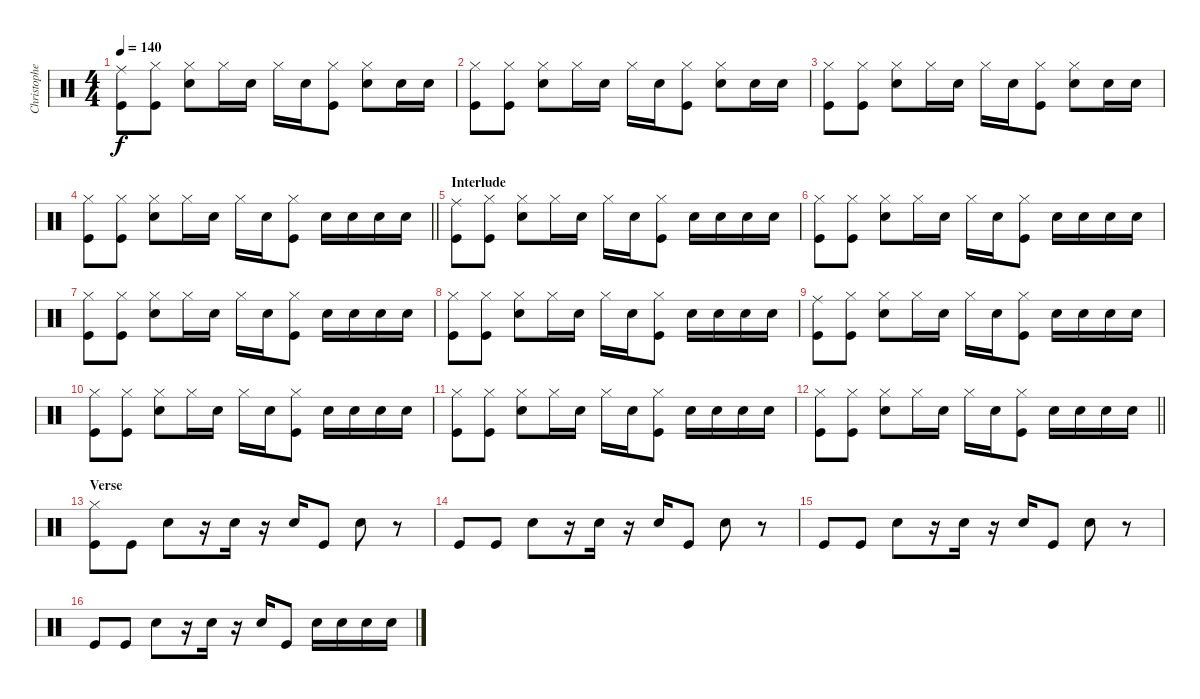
\track ("Christopher - Drums" "Christophe") {instrument percussion}
\staff {score}
\articulation defaults
\ts (4 4)
\tempo 140
\clef neutral
\ks c
("Ride (middle)" "Kick (hit)").8{dy f} ("Hi-Hat (closed)" "Kick (hit)").8 ("Hi-Hat (closed)" "Snare (hit) 2").8 "Hi-Hat (closed)".16 "Snare (hit) 2".16 "Hi-Hat (closed)".16 "Snare (hit) 2".16 ("Hi-Hat (closed)" "Kick (hit)").8 ("Hi-Hat (closed)" "Snare (hit) 2").8 "Snare (hit) 2".16 "Snare (hit) 2".16 |
("Hi-Hat (closed)" "Kick (hit)").8 ("Hi-Hat (closed)" "Kick (hit)").8 ("Hi-Hat (closed)" "Snare (hit) 2").8 "Hi-Hat (closed)".16 "Snare (hit) 2".16 "Hi-Hat (closed)".16 "Snare (hit) 2".16 ("Hi-Hat (closed)" "Kick (hit)").8 ("Hi-Hat (closed)" "Snare (hit) 2").8 "Snare (hit) 2".16 "Snare (hit) 2".16 |
("Hi-Hat (closed)" "Kick (hit)").8 ("Hi-Hat (closed)" "Kick (hit)").8 ("Hi-Hat (closed)" "Snare (hit) 2").8 "Hi-Hat (closed)".16 "Snare (hit) 2".16 "Hi-Hat (closed)".16 "Snare (hit) 2".16 ("Hi-Hat (closed)" "Kick (hit)").8 ("Hi-Hat (closed)" "Snare (hit) 2").8 "Snare (hit) 2".16 "Snare (hit) 2".16 |
\barLineRight lightlight
("Hi-Hat (closed)" "Kick (hit)").8 ("Hi-Hat (closed)" "Kick (hit)").8 ("Hi-Hat (closed)" "Snare (hit) 2").8 "Hi-Hat (closed)".16 "Snare (hit) 2".16 "Hi-Hat (closed)".16 "Snare (hit) 2".16 ("Hi-Hat (closed)" "Kick (hit)").8 "Snare (hit) 2".16 "Snare (hit) 2".16 "Snare (hit) 2".16 "Snare (hit) 2".16 |
\section ("" "Interlude")
("Ride (middle)" "Kick (hit)").8 ("Hi-Hat (closed)" "Kick (hit)").8 ("Hi-Hat (closed)" "Snare (hit) 2").8 "Hi-Hat (closed)".16 "Snare (hit) 2".16 "Hi-Hat (closed)".16 "Snare (hit) 2".16 ("Hi-Hat (closed)" "Kick (hit)").8 "Snare (hit) 2".16 "Snare (hit) 2".16 "Snare (hit) 2".16 "Snare (hit) 2".16 |
("Hi-Hat (closed)" "Kick (hit)").8 ("Hi-Hat (closed)" "Kick (hit)").8 ("Hi-Hat (closed)" "Snare (hit) 2").8 "Hi-Hat (closed)".16 "Snare (hit) 2".16 "Hi-Hat (closed)".16 "Snare (hit) 2".16 ("Hi-Hat (closed)" "Kick (hit)").8 "Snare (hit) 2".16 "Snare (hit) 2".16 "Snare (hit) 2".16 "Snare (hit) 2".16 |
("Hi-Hat (closed)" "Kick (hit)").8 ("Hi-Hat (closed)" "Kick (hit)").8 ("Hi-Hat (closed)" "Snare (hit) 2").8 "Hi-Hat (closed)".16 "Snare (hit) 2".16 "Hi-Hat (closed)".16 "Snare (hit) 2".16 ("Hi-Hat (closed)" "Kick (hit)").8 "Snare (hit) 2".16 "Snare (hit) 2".16 "Snare (hit) 2".16 "Snare (hit) 2".16 |
("Hi-Hat (closed)" "Kick (hit)").8 ("Hi-Hat (closed)" "Kick (hit)").8 ("Hi-Hat (closed)" "Snare (hit) 2").8 "Hi-Hat (closed)".16 "Snare (hit) 2".16 "Hi-Hat (closed)".16 "Snare (hit) 2".16 ("Hi-Hat (closed)" "Kick (hit)").8 "Snare (hit) 2".16 "Snare (hit) 2".16 "Snare (hit) 2".16 "Snare (hit) 2".16 |
("Ride (middle)" "Kick (hit)").8 ("Hi-Hat (closed)" "Kick (hit)").8 ("Hi-Hat (closed)" "Snare (hit) 2").8 "Hi-Hat (closed)".16 "Snare (hit) 2".16 "Hi-Hat (closed)".16 "Snare (hit) 2".16 ("Hi-Hat (closed)" "Kick (hit)").8 "Snare (hit) 2".16 "Snare (hit) 2".16 "Snare (hit) 2".16 "Snare (hit) 2".16 |
("Hi-Hat (closed)" "Kick (hit)").8 ("Hi-Hat (closed)" "Kick (hit)").8 ("Hi-Hat (closed)" "Snare (hit) 2").8 "Hi-Hat (closed)".16 "Snare (hit) 2".16 "Hi-Hat (closed)".16 "Snare (hit) 2".16 ("Hi-Hat (closed)" "Kick (hit)").8 "Snare (hit) 2".16 "Snare (hit) 2".16 "Snare (hit) 2".16 "Snare (hit) 2".16 |
("Hi-Hat (closed)" "Kick (hit)").8 ("Hi-Hat (closed)" "Kick (hit)").8 ("Hi-Hat (closed)" "Snare (hit) 2").8 "Hi-Hat (closed)".16 "Snare (hit) 2".16 "Hi-Hat (closed)".16 "Snare (hit) 2".16 ("Hi-Hat (closed)" "Kick (hit)").8 "Snare (hit) 2".16 "Snare (hit) 2".16 "Snare (hit) 2".16 "Snare (hit) 2".16 |
\barLineRight lightlight
("Hi-Hat (closed)" "Kick (hit)").8 ("Hi-Hat (closed)" "Kick (hit)").8 ("Hi-Hat (closed)" "Snare (hit) 2").8 "Hi-Hat (closed)".16 "Snare (hit) 2".16 "Hi-Hat (closed)".16 "Snare (hit) 2".16 ("Hi-Hat (closed)" "Kick (hit)").8 "Snare (hit) 2".16 "Snare (hit) 2".16 "Snare (hit) 2".16 "Snare (hit) 2".16 |
\section ("" "Verse")
("Hi-Hat (closed)" "Kick (hit)").8 "Kick (hit)".8 "Snare (hit) 2".8 r.16 "Snare (hit) 2".16 r.16 "Snare (hit) 2".16 "Kick (hit)".8 "Snare (hit) 2".8 r.8 |
"Kick (hit)".8 "Kick (hit)".8 "Snare (hit) 2".8 r.16 "Snare (hit) 2".16 r.16 "Snare (hit) 2".16 "Kick (hit)".8 "Snare (hit) 2".8 r.8 |
"Kick (hit)".8 "Kick (hit)".8 "Snare (hit) 2".8 r.16 "Snare (hit) 2".16 r.16 "Snare (hit) 2".16 "Kick (hit)".8 "Snare (hit) 2".8 r.8 |
"Kick (hit)".8 "Kick (hit)".8 "Snare (hit) 2".8 r.16 "Snare (hit) 2".16 r.16 "Snare (hit) 2".16 "Kick (hit)".8 "Snare (hit) 2".16 "Snare (hit) 2".16 "Snare (hit) 2".16 "Snare (hit) 2".16
